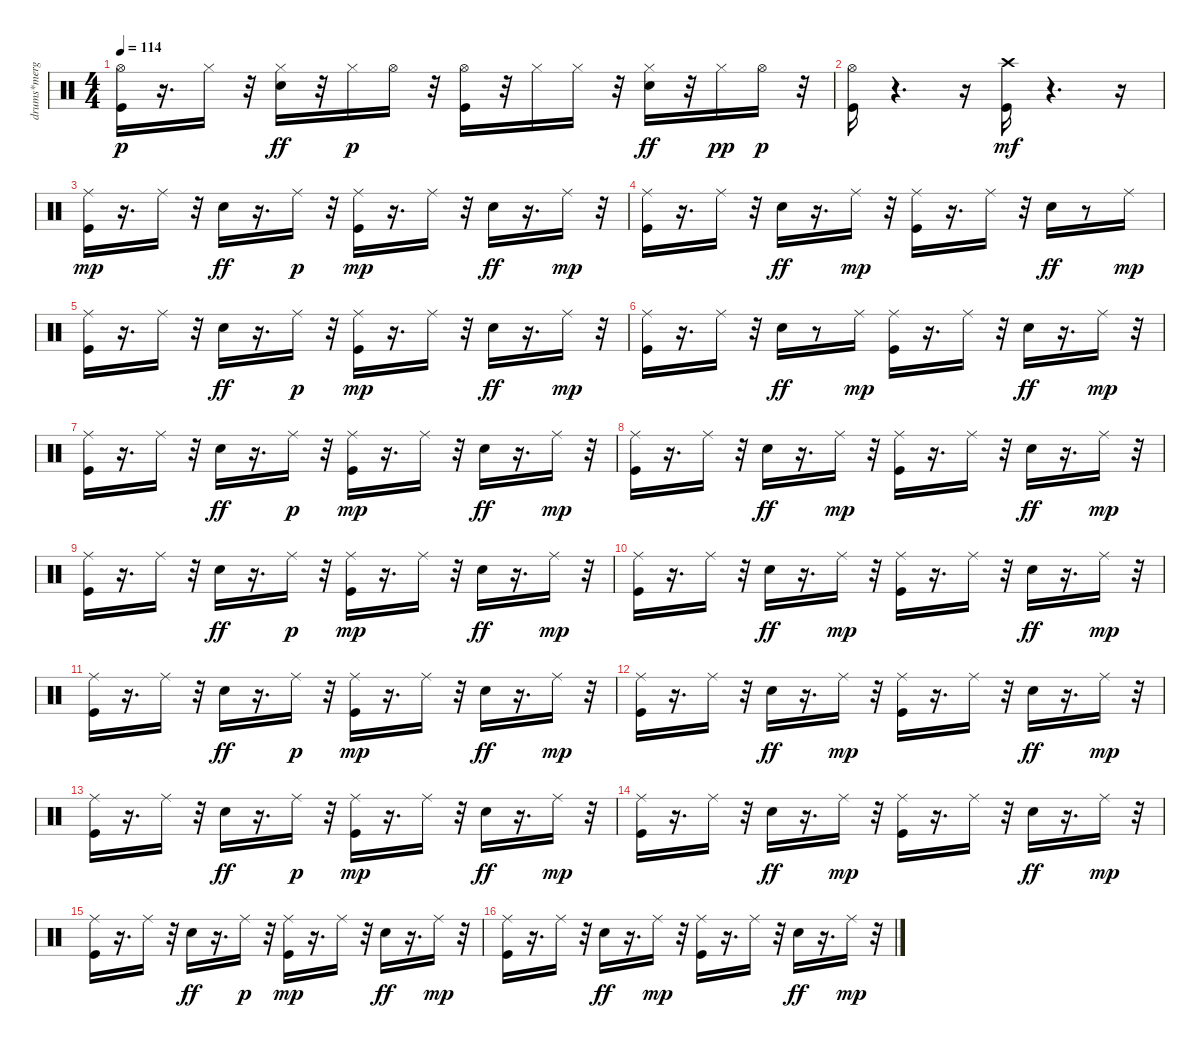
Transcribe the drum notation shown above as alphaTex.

\track ("drums*merged" "drums*merg") {instrument percussion}
\staff {score}
\articulation defaults
\ts (4 4)
\tempo 114
\clef neutral
\ks c
("Hi-Hat (open)" "Kick (hit)").16{dy p} r.16{d} "Hi-Hat (closed)".16 r.32 ("Hi-Hat (closed)" "Snare (hit) 2").16{dy ff} r.32 "Hi-Hat (closed)".16{dy p} "Hi-Hat (open)".16 r.32 ("Hi-Hat (open)" "Kick (hit)").16 r.32 "Hi-Hat (closed)".16 "Hi-Hat (closed)".16 r.32 ("Hi-Hat (closed)" "Snare (hit) 2").16{dy ff} r.32 "Hi-Hat (closed)".16{dy pp} "Hi-Hat (open)".16{dy p} r.32 |
("Hi-Hat (open)" "Kick (hit)").16 r.4{d} r.16 ("Kick (hit)" "Crash high (hit)").16{dy mf} r.4{d} r.16 |
("Kick (hit)" "Ride (middle)").16{dy mp} r.16{d} "Ride (middle)".16 r.32 "Snare (hit) 2".16{dy ff} r.16{d} "Ride (middle)".16{dy p} r.32 ("Ride (middle)" "Kick (hit)").16{dy mp} r.16{d} "Ride (middle)".16 r.32 "Snare (hit) 2".16{dy ff} r.16{d} "Ride (middle)".16{dy mp} r.32 |
("Ride (middle)" "Kick (hit)").16 r.16{d} "Ride (middle)".16 r.32 "Snare (hit) 2".16{dy ff} r.16{d} "Ride (middle)".16{dy mp} r.32 ("Ride (middle)" "Kick (hit)").16 r.16{d} "Ride (middle)".16 r.32 "Snare (hit) 2".16{dy ff} r.8 "Ride (middle)".16{dy mp} |
("Ride (middle)" "Kick (hit)").16 r.16{d} "Ride (middle)".16 r.32 "Snare (hit) 2".16{dy ff} r.16{d} "Ride (middle)".16{dy p} r.32 ("Ride (middle)" "Kick (hit)").16{dy mp} r.16{d} "Ride (middle)".16 r.32 "Snare (hit) 2".16{dy ff} r.16{d} "Ride (middle)".16{dy mp} r.32 |
("Ride (middle)" "Kick (hit)").16 r.16{d} "Ride (middle)".16 r.32 "Snare (hit) 2".16{dy ff} r.8 "Ride (middle)".16{dy mp} ("Ride (middle)" "Kick (hit)").16 r.16{d} "Ride (middle)".16 r.32 "Snare (hit) 2".16{dy ff} r.16{d} "Ride (middle)".16{dy mp} r.32 |
("Kick (hit)" "Ride (middle)").16 r.16{d} "Ride (middle)".16 r.32 "Snare (hit) 2".16{dy ff} r.16{d} "Ride (middle)".16{dy p} r.32 ("Ride (middle)" "Kick (hit)").16{dy mp} r.16{d} "Ride (middle)".16 r.32 "Snare (hit) 2".16{dy ff} r.16{d} "Ride (middle)".16{dy mp} r.32 |
("Ride (middle)" "Kick (hit)").16 r.16{d} "Ride (middle)".16 r.32 "Snare (hit) 2".16{dy ff} r.16{d} "Ride (middle)".16{dy mp} r.32 ("Kick (hit)" "Ride (middle)").16 r.16{d} "Ride (middle)".16 r.32 "Snare (hit) 2".16{dy ff} r.16{d} "Ride (middle)".16{dy mp} r.32 |
("Ride (middle)" "Kick (hit)").16 r.16{d} "Ride (middle)".16 r.32 "Snare (hit) 2".16{dy ff} r.16{d} "Ride (middle)".16{dy p} r.32 ("Ride (middle)" "Kick (hit)").16{dy mp} r.16{d} "Ride (middle)".16 r.32 "Snare (hit) 2".16{dy ff} r.16{d} "Ride (middle)".16{dy mp} r.32 |
("Ride (middle)" "Kick (hit)").16 r.16{d} "Ride (middle)".16 r.32 "Snare (hit) 2".16{dy ff} r.16{d} "Ride (middle)".16{dy mp} r.32 ("Ride (middle)" "Kick (hit)").16 r.16{d} "Ride (middle)".16 r.32 "Snare (hit) 2".16{dy ff} r.16{d} "Ride (middle)".16{dy mp} r.32 |
("Ride (middle)" "Kick (hit)").16 r.16{d} "Ride (middle)".16 r.32 "Snare (hit) 2".16{dy ff} r.16{d} "Ride (middle)".16{dy p} r.32 ("Ride (middle)" "Kick (hit)").16{dy mp} r.16{d} "Ride (middle)".16 r.32 "Snare (hit) 2".16{dy ff} r.16{d} "Ride (middle)".16{dy mp} r.32 |
("Ride (middle)" "Kick (hit)").16 r.16{d} "Ride (middle)".16 r.32 "Snare (hit) 2".16{dy ff} r.16{d} "Ride (middle)".16{dy mp} r.32 ("Ride (middle)" "Kick (hit)").16 r.16{d} "Ride (middle)".16 r.32 "Snare (hit) 2".16{dy ff} r.16{d} "Ride (middle)".16{dy mp} r.32 |
("Ride (middle)" "Kick (hit)").16 r.16{d} "Ride (middle)".16 r.32 "Snare (hit) 2".16{dy ff} r.16{d} "Ride (middle)".16{dy p} r.32 ("Kick (hit)" "Ride (middle)").16{dy mp} r.16{d} "Ride (middle)".16 r.32 "Snare (hit) 2".16{dy ff} r.16{d} "Ride (middle)".16{dy mp} r.32 |
("Kick (hit)" "Ride (middle)").16 r.16{d} "Ride (middle)".16 r.32 "Snare (hit) 2".16{dy ff} r.16{d} "Ride (middle)".16{dy mp} r.32 ("Ride (middle)" "Kick (hit)").16 r.16{d} "Ride (middle)".16 r.32 "Snare (hit) 2".16{dy ff} r.16{d} "Ride (middle)".16{dy mp} r.32 |
("Ride (middle)" "Kick (hit)").16 r.16{d} "Ride (middle)".16 r.32 "Snare (hit) 2".16{dy ff} r.16{d} "Ride (middle)".16{dy p} r.32 ("Kick (hit)" "Ride (middle)").16{dy mp} r.16{d} "Ride (middle)".16 r.32 "Snare (hit) 2".16{dy ff} r.16{d} "Ride (middle)".16{dy mp} r.32 |
("Ride (middle)" "Kick (hit)").16 r.16{d} "Ride (middle)".16 r.32 "Snare (hit) 2".16{dy ff} r.16{d} "Ride (middle)".16{dy mp} r.32 ("Ride (middle)" "Kick (hit)").16 r.16{d} "Ride (middle)".16 r.32 "Snare (hit) 2".16{dy ff} r.16{d} "Ride (middle)".16{dy mp} r.32
